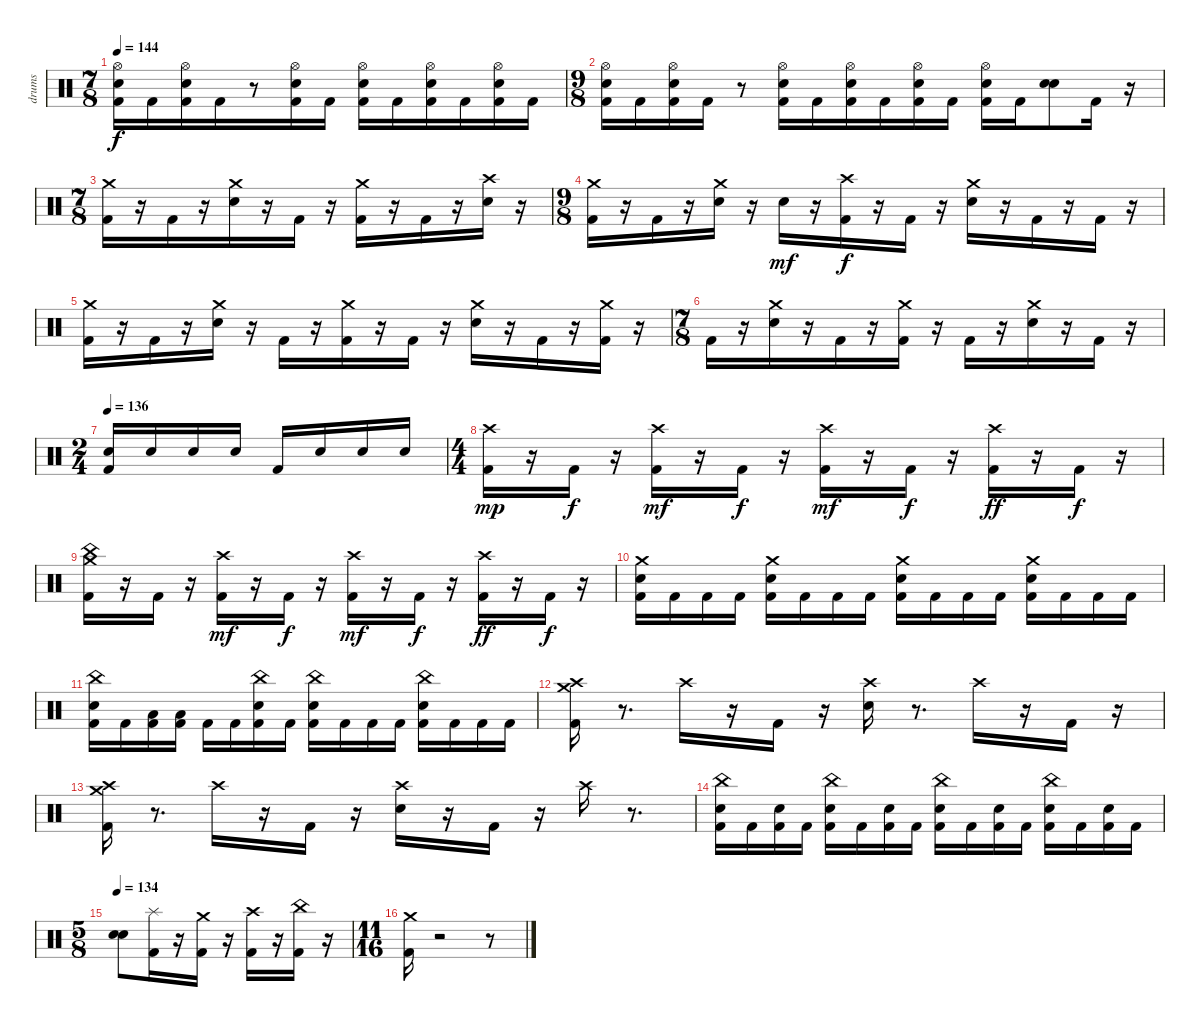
\track ("drums" "drums") {instrument percussion}
\staff {score}
\articulation defaults
\ts (7 8)
\tempo 144
\clef neutral
\ks c
("Kick (hit) 2" "Snare (hit) 2" "Hi-Hat (open)").16{dy f} "Kick (hit) 2".16 ("Kick (hit) 2" "Snare (hit) 2" "Hi-Hat (open)").16 "Kick (hit) 2".16 r.8 ("Kick (hit) 2" "Snare (hit) 2" "Hi-Hat (open)").16 "Kick (hit) 2".16 ("Kick (hit) 2" "Snare (hit) 2" "Hi-Hat (open)").16 "Kick (hit) 2".16 ("Kick (hit) 2" "Snare (hit) 2" "Hi-Hat (open)").16 "Kick (hit) 2".16 ("Kick (hit) 2" "Snare (hit) 2" "Hi-Hat (open)").16 "Kick (hit) 2".16 |
\ts (9 8)
("Kick (hit) 2" "Snare (hit) 2" "Hi-Hat (open)").16 "Kick (hit) 2".16 ("Kick (hit) 2" "Snare (hit) 2" "Hi-Hat (open)").16 "Kick (hit) 2".16 r.8 ("Kick (hit) 2" "Snare (hit) 2" "Hi-Hat (open)").16 "Kick (hit) 2".16 ("Kick (hit) 2" "Snare (hit) 2" "Hi-Hat (open)").16 "Kick (hit) 2".16 ("Kick (hit) 2" "Snare (hit) 2" "Hi-Hat (open)").16 "Kick (hit) 2".16 ("Kick (hit) 2" "Snare (hit) 2" "Hi-Hat (open)").16 "Kick (hit) 2".16 ("Snare (hit) 2" "Snare (hit) 2").8 "Kick (hit) 2".16 r.16 |
\ts (7 8)
("Kick (hit) 2" "Crash medium (hit)").16 r.16 "Kick (hit) 2".16 r.16 ("Snare (hit) 2" "Crash medium (hit)").16 r.16 "Kick (hit) 2".16 r.16 ("Kick (hit) 2" "Crash medium (hit)").16 r.16 "Kick (hit) 2".16 r.16 ("Snare (hit) 2" "Crash high (hit)").16 r.16 |
\ts (9 8)
("Kick (hit) 2" "Crash medium (hit)").16 r.16 "Kick (hit) 2".16 r.16 ("Snare (hit) 2" "Crash medium (hit)").16 r.16 "Snare (hit) 2".16{dy mf} r.16 ("Kick (hit) 2" "Crash high (hit)").16{dy f} r.16 "Kick (hit) 2".16 r.16 ("Snare (hit) 2" "Crash medium (hit)").16 r.16 "Kick (hit) 2".16 r.16 "Kick (hit) 2".16 r.16 |
("Kick (hit) 2" "Crash medium (hit)").16 r.16 "Kick (hit) 2".16 r.16 ("Snare (hit) 2" "Crash medium (hit)").16 r.16 "Kick (hit) 2".16 r.16 ("Kick (hit) 2" "Crash medium (hit)").16 r.16 "Kick (hit) 2".16 r.16 ("Snare (hit) 2" "Crash medium (hit)").16 r.16 "Kick (hit) 2".16 r.16 ("Kick (hit) 2" "Crash medium (hit)").16 r.16 |
\ts (7 8)
"Kick (hit) 2".16 r.16 ("Snare (hit) 2" "Crash medium (hit)").16 r.16 "Kick (hit) 2".16 r.16 ("Kick (hit) 2" "Crash medium (hit)").16 r.16 "Kick (hit) 2".16 r.16 ("Snare (hit) 2" "Crash medium (hit)").16 r.16 "Kick (hit) 2".16 r.16 |
\ts (2 4)
\tempo 136
("Kick (hit) 2" "Snare (hit) 2").16 "Snare (hit) 2".16 "Snare (hit) 2".16 "Snare (hit) 2".16 "Kick (hit) 2".16 "Snare (hit) 2".16 "Snare (hit) 2".16 "Snare (hit) 2".16 |
\ts (4 4)
("Kick (hit) 2" "Crash high (hit)").16{dy mp} r.16 "Kick (hit) 2".16{dy f} r.16 ("Kick (hit) 2" "Crash high (hit)").16{dy mf} r.16 "Kick (hit) 2".16{dy f} r.16 ("Kick (hit) 2" "Crash high (hit)").16{dy mf} r.16 "Kick (hit) 2".16{dy f} r.16 ("Kick (hit) 2" "Crash high (hit)").16{dy ff} r.16 "Kick (hit) 2".16{dy f} r.16 |
("Kick (hit) 2" "China (hit)" "Crash medium (hit)").16 r.16 "Kick (hit) 2".16 r.16 ("Kick (hit) 2" "Crash high (hit)").16{dy mf} r.16 "Kick (hit) 2".16{dy f} r.16 ("Kick (hit) 2" "Crash high (hit)").16{dy mf} r.16 "Kick (hit) 2".16{dy f} r.16 ("Kick (hit) 2" "Crash high (hit)").16{dy ff} r.16 "Kick (hit) 2".16{dy f} r.16 |
("Kick (hit) 2" "Snare (hit) 2" "Crash medium (hit)").16 "Kick (hit) 2".16 "Kick (hit) 2".16 "Kick (hit) 2".16 ("Kick (hit) 2" "Snare (hit) 2" "Crash medium (hit)").16 "Kick (hit) 2".16 "Kick (hit) 2".16 "Kick (hit) 2".16 ("Kick (hit) 2" "Snare (hit) 2" "Crash medium (hit)").16 "Kick (hit) 2".16 "Kick (hit) 2".16 "Kick (hit) 2".16 ("Kick (hit) 2" "Snare (hit) 2" "Crash medium (hit)").16 "Kick (hit) 2".16 "Kick (hit) 2".16 "Kick (hit) 2".16 |
("Kick (hit) 2" "Snare (hit) 2" "China (hit)").16 "Kick (hit) 2".16 ("Kick (hit) 2" "Low Tom (hit)").16 ("Kick (hit) 2" "Low Floor Tom (hit)").16 "Kick (hit) 2".16 "Kick (hit) 2".16 ("Kick (hit) 2" "Snare (hit) 2" "China (hit)").16 "Kick (hit) 2".16 ("Kick (hit) 2" "Snare (hit) 2" "China (hit)").16 "Kick (hit) 2".16 "Kick (hit) 2".16 "Kick (hit) 2".16 ("Kick (hit) 2" "Snare (hit) 2" "China (hit)").16 "Kick (hit) 2".16 "Kick (hit) 2".16 "Kick (hit) 2".16 |
("Kick (hit) 2" "Crash high (hit)" "Crash medium (hit)").16 r.8{d} "Crash high (hit)".16 r.16 "Kick (hit) 2".16 r.16 ("Snare (hit) 2" "Crash high (hit)").16 r.8{d} "Crash high (hit)".16 r.16 "Kick (hit) 2".16 r.16 |
("Kick (hit) 2" "Crash high (hit)" "Crash medium (hit)").16 r.8{d} "Crash high (hit)".16 r.16 "Kick (hit) 2".16 r.16 ("Snare (hit) 2" "Crash high (hit)").16 r.16 "Kick (hit) 2".16 r.16 "Crash high (hit)".16 r.8{d} |
("Kick (hit) 2" "Snare (hit) 2" "China (hit)").16 "Kick (hit) 2".16 ("Kick (hit) 2" "Snare (hit) 2").16 "Kick (hit) 2".16 ("Kick (hit) 2" "Snare (hit) 2" "China (hit)").16 "Kick (hit) 2".16 ("Kick (hit) 2" "Snare (hit) 2").16 "Kick (hit) 2".16 ("Kick (hit) 2" "Snare (hit) 2" "China (hit)").16 "Kick (hit) 2".16 ("Kick (hit) 2" "Snare (hit) 2").16 "Kick (hit) 2".16 ("Kick (hit) 2" "Snare (hit) 2" "China (hit)").16 "Kick (hit) 2".16 ("Kick (hit) 2" "Snare (hit) 2").16 "Kick (hit) 2".16 |
\ts (5 8)
\tempo 134
("Snare (hit) 2" "Snare (hit) 2").8 ("Kick (hit) 2" "Splash (hit)").16 r.16 ("Kick (hit) 2" "Crash medium (hit)").16 r.16 ("Kick (hit) 2" "Crash high (hit)").16 r.16 ("Kick (hit) 2" "China (hit)").16 r.16 |
\ts (11 16)
("Kick (hit) 2" "Crash medium (hit)").16 r.2 r.8
